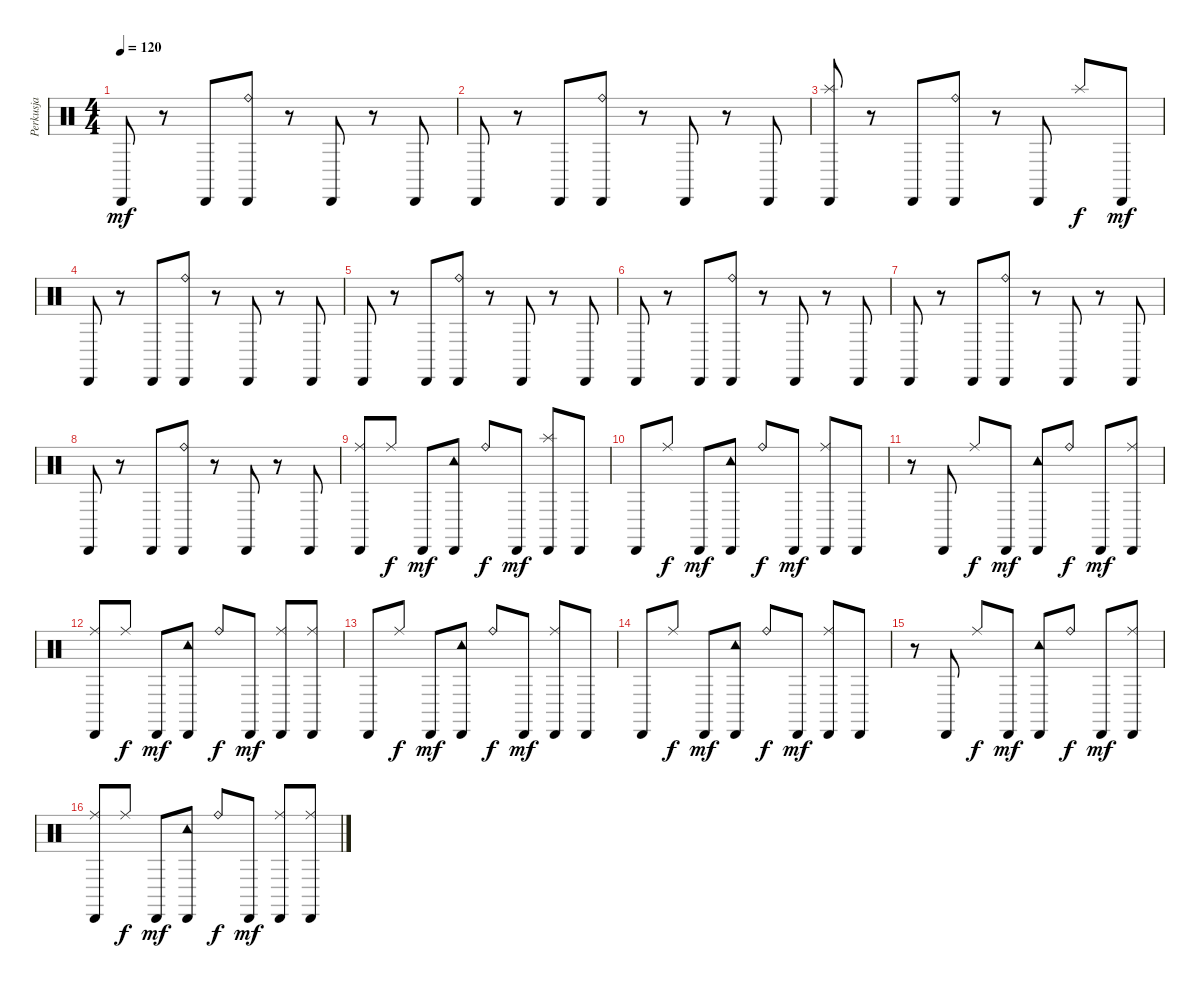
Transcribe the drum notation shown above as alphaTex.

\track ("Perkusja" "Perkusja") {instrument percussion}
\staff {score}
\articulation defaults
\ts (4 4)
\tempo 120
\clef neutral
\ks c "Cabasa (hit)".8{dy mf}
r.8 "Cabasa (hit)".8 ("Ride (bell)" "Cabasa (hit)").8 r.8 "Cabasa (hit)".8 r.8 "Cabasa (hit)".8 |
"Cabasa (hit)".8 r.8 "Cabasa (hit)".8 ("Ride (bell)" "Cabasa (hit)").8 r.8 "Cabasa (hit)".8 r.8 "Cabasa (hit)".8 |
("Splash (hit)" "Cabasa (hit)").8 r.8 "Cabasa (hit)".8 ("Ride (bell)" "Cabasa (hit)").8 r.8 "Cabasa (hit)".8 "Splash (hit)".8{dy f} "Cabasa (hit)".8{dy mf} |
"Cabasa (hit)".8 r.8 "Cabasa (hit)".8 ("Ride (bell)" "Cabasa (hit)").8 r.8 "Cabasa (hit)".8 r.8 "Cabasa (hit)".8 |
"Cabasa (hit)".8 r.8 "Cabasa (hit)".8 ("Ride (bell)" "Cabasa (hit)").8 r.8 "Cabasa (hit)".8 r.8 "Cabasa (hit)".8 |
"Cabasa (hit)".8 r.8 "Cabasa (hit)".8 ("Ride (bell)" "Cabasa (hit)").8 r.8 "Cabasa (hit)".8 r.8 "Cabasa (hit)".8 |
"Cabasa (hit)".8 r.8 "Cabasa (hit)".8 ("Ride (bell)" "Cabasa (hit)").8 r.8 "Cabasa (hit)".8 r.8 "Cabasa (hit)".8 |
"Cabasa (hit)".8 r.8 "Cabasa (hit)".8 ("Ride (bell)" "Cabasa (hit)").8 r.8 "Cabasa (hit)".8 r.8 "Cabasa (hit)".8 |
("Ride (middle)" "Cabasa (hit)").8 "Ride (middle)".8{dy f} "Cabasa (hit)".8{dy mf} ("Tambourine (hit)" "Cabasa (hit)").8 "Ride (bell)".8{dy f} "Cabasa (hit)".8{dy mf} ("Splash (hit)" "Cabasa (hit)").8 "Cabasa (hit)".8 |
"Cabasa (hit)".8 "Ride (middle)".8{dy f} "Cabasa (hit)".8{dy mf} ("Tambourine (hit)" "Cabasa (hit)").8 "Ride (bell)".8{dy f} "Cabasa (hit)".8{dy mf} ("Ride (middle)" "Cabasa (hit)").8 "Cabasa (hit)".8 |
r.8 "Cabasa (hit)".8 "Ride (middle)".8{dy f} "Cabasa (hit)".8{dy mf} ("Tambourine (hit)" "Cabasa (hit)").8 "Ride (bell)".8{dy f} "Cabasa (hit)".8{dy mf} ("Ride (middle)" "Cabasa (hit)").8 |
("Ride (middle)" "Cabasa (hit)").8 "Ride (middle)".8{dy f} "Cabasa (hit)".8{dy mf} ("Tambourine (hit)" "Cabasa (hit)").8 "Ride (bell)".8{dy f} "Cabasa (hit)".8{dy mf} ("Ride (middle)" "Cabasa (hit)").8 ("Ride (middle)" "Cabasa (hit)").8 |
"Cabasa (hit)".8 "Ride (middle)".8{dy f} "Cabasa (hit)".8{dy mf} ("Tambourine (hit)" "Cabasa (hit)").8 "Ride (bell)".8{dy f} "Cabasa (hit)".8{dy mf} ("Ride (middle)" "Cabasa (hit)").8 "Cabasa (hit)".8 |
"Cabasa (hit)".8 "Ride (middle)".8{dy f} "Cabasa (hit)".8{dy mf} ("Tambourine (hit)" "Cabasa (hit)").8 "Ride (bell)".8{dy f} "Cabasa (hit)".8{dy mf} ("Ride (middle)" "Cabasa (hit)").8 "Cabasa (hit)".8 |
r.8 "Cabasa (hit)".8 "Ride (middle)".8{dy f} "Cabasa (hit)".8{dy mf} ("Tambourine (hit)" "Cabasa (hit)").8 "Ride (bell)".8{dy f} "Cabasa (hit)".8{dy mf} ("Ride (middle)" "Cabasa (hit)").8 |
("Ride (middle)" "Cabasa (hit)").8 "Ride (middle)".8{dy f} "Cabasa (hit)".8{dy mf} ("Tambourine (hit)" "Cabasa (hit)").8 "Ride (bell)".8{dy f} "Cabasa (hit)".8{dy mf} ("Ride (middle)" "Cabasa (hit)").8 ("Ride (middle)" "Cabasa (hit)").8
